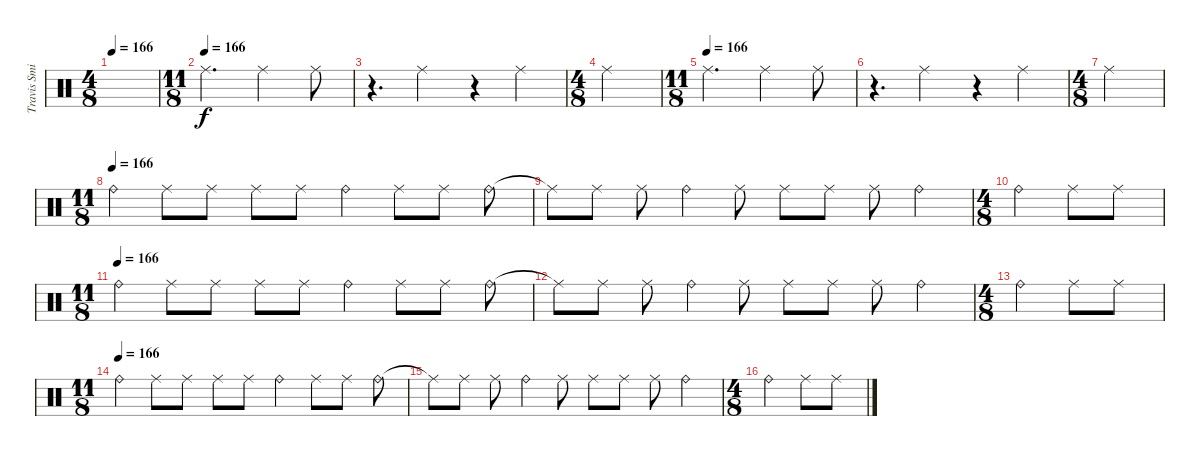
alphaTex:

\track ("Travis Smith" "Travis Smi") {instrument percussion}
\staff {score}
\articulation defaults
\ts (4 8)
\tempo 166
\clef neutral
\ks c
|
\ts (11 8)
\tempo (166)
"Ride (middle)".2{d} "Ride (middle)".2 "Ride (middle)".8 |
r.4{d} "Ride (middle)".2 r.4 "Ride (middle)".4 |
\ts (4 8)
"Ride (middle)".2 |
\ts (11 8)
\tempo (166)
"Ride (middle)".2{d} "Ride (middle)".2 "Ride (middle)".8 |
r.4{d} "Ride (middle)".2 r.4 "Ride (middle)".4 |
\ts (4 8)
"Ride (middle)".2 |
\ts (11 8)
\tempo (166)
"Ride (bell)".4 "Ride (middle)".8 "Ride (middle)".8 "Ride (middle)".8 "Ride (middle)".8 "Ride (bell)".4 "Ride (middle)".8 "Ride (middle)".8 "Ride (bell)".8 |
"Ride (middle)"{t}.8 "Ride (middle)".8 "Ride (middle)".8 "Ride (bell)".4 "Ride (middle)".8 "Ride (middle)".8 "Ride (middle)".8 "Ride (middle)".8 "Ride (bell)".4 |
\ts (4 8)
"Ride (bell)".4 "Ride (middle)".8 "Ride (middle)".8 |
\ts (11 8)
\tempo (166)
"Ride (bell)".4 "Ride (middle)".8 "Ride (middle)".8 "Ride (middle)".8 "Ride (middle)".8 "Ride (bell)".4 "Ride (middle)".8 "Ride (middle)".8 "Ride (bell)".8 |
"Ride (middle)"{t}.8 "Ride (middle)".8 "Ride (middle)".8 "Ride (bell)".4 "Ride (middle)".8 "Ride (middle)".8 "Ride (middle)".8 "Ride (middle)".8 "Ride (bell)".4 |
\ts (4 8)
"Ride (bell)".4 "Ride (middle)".8 "Ride (middle)".8 |
\ts (11 8)
\tempo (166)
"Ride (bell)".4 "Ride (middle)".8 "Ride (middle)".8 "Ride (middle)".8 "Ride (middle)".8 "Ride (bell)".4 "Ride (middle)".8 "Ride (middle)".8 "Ride (bell)".8 |
"Ride (middle)"{t}.8 "Ride (middle)".8 "Ride (middle)".8 "Ride (bell)".4 "Ride (middle)".8 "Ride (middle)".8 "Ride (middle)".8 "Ride (middle)".8 "Ride (bell)".4 |
\ts (4 8)
"Ride (bell)".4 "Ride (middle)".8 "Ride (middle)".8
